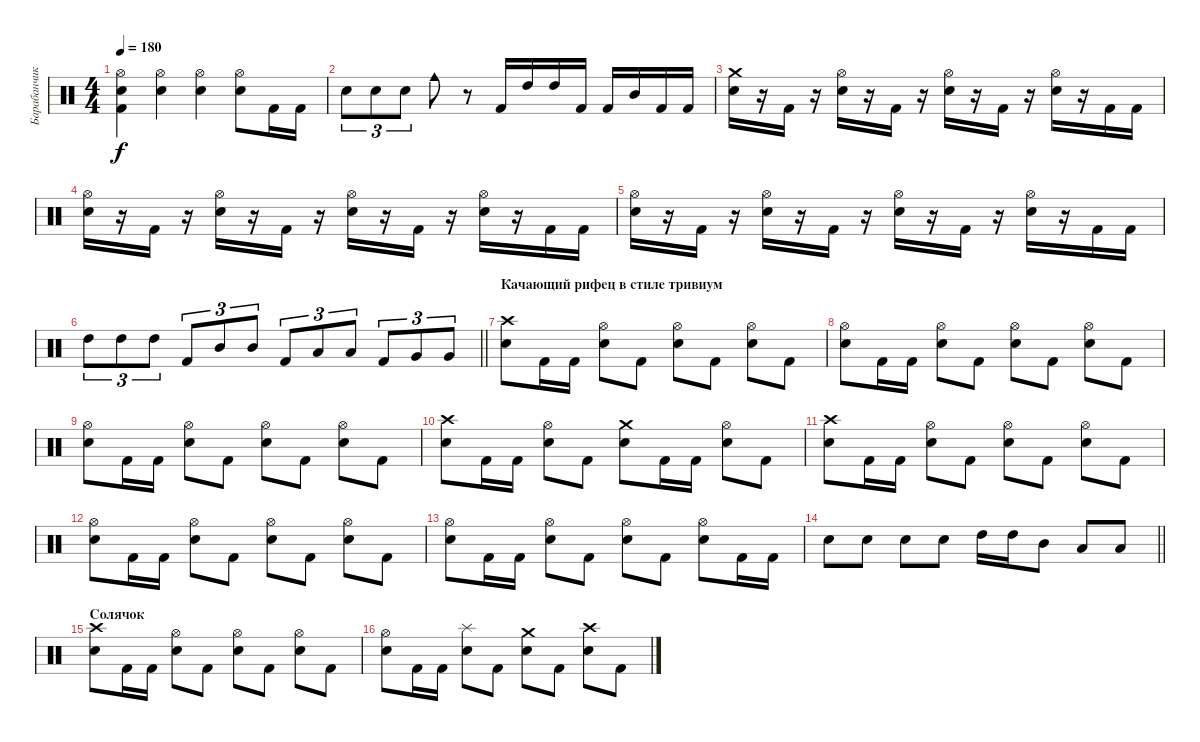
\track ("Барабанчики" "Барабанчик") {instrument percussion}
\staff {score}
\articulation defaults
\ts (4 4)
\tempo 180
\clef neutral
\ks c
("Hi-Hat (open)" "Electric Snare (hit)" "Kick (hit) 2").4{dy f} ("Hi-Hat (open)" "Electric Snare (hit)").4 ("Hi-Hat (open)" "Electric Snare (hit)").4 ("Hi-Hat (open)" "Electric Snare (hit)").8 "Kick (hit) 2".16 "Kick (hit) 2".16 |
"Electric Snare (hit)".8{tu (3 2)} "Electric Snare (hit)".8{tu (3 2)} "Electric Snare (hit)".8{tu (3 2)} "Cowbell medium (hit)".8 r.8 "Kick (hit) 2".16 "High Tom (hit)".16 "High Tom (hit)".16 "Kick (hit) 2".16 "Kick (hit) 2".16 "Mid Tom (hit)".16 "Kick (hit) 2".16 "Kick (hit) 2".16 |
("Electric Snare (hit)" "Crash medium (hit)").16 r.16 "Kick (hit) 2".16 r.16 ("Electric Snare (hit)" "Hi-Hat (open)").16 r.16 "Kick (hit) 2".16 r.16 ("Electric Snare (hit)" "Hi-Hat (open)").16 r.16 "Kick (hit) 2".16 r.16 ("Electric Snare (hit)" "Hi-Hat (open)").16 r.16 "Kick (hit) 2".16 "Kick (hit) 2".16 |
("Electric Snare (hit)" "Hi-Hat (open)").16 r.16 "Kick (hit) 2".16 r.16 ("Electric Snare (hit)" "Hi-Hat (open)").16 r.16 "Kick (hit) 2".16 r.16 ("Electric Snare (hit)" "Hi-Hat (open)").16 r.16 "Kick (hit) 2".16 r.16 ("Electric Snare (hit)" "Hi-Hat (open)").16 r.16 "Kick (hit) 2".16 "Kick (hit) 2".16 |
("Electric Snare (hit)" "Hi-Hat (open)").16 r.16 "Kick (hit) 2".16 r.16 ("Electric Snare (hit)" "Hi-Hat (open)").16 r.16 "Kick (hit) 2".16 r.16 ("Electric Snare (hit)" "Hi-Hat (open)").16 r.16 "Kick (hit) 2".16 r.16 ("Electric Snare (hit)" "Hi-Hat (open)").16 r.16 "Kick (hit) 2".16 "Kick (hit) 2".16 |
\barLineRight lightlight "High Tom (hit)".8{tu (3 2)} "High Tom (hit)".8{tu (3 2)} "High Tom (hit)".8{tu (3 2)} "Kick (hit) 2".8{tu (3 2)} "Mid Tom (hit)".8{tu (3 2)} "Mid Tom (hit)".8{tu (3 2)} "Kick (hit) 2".8{tu (3 2)} "Low Tom (hit)".8{tu (3 2)} "Low Tom (hit)".8{tu (3 2)} "Kick (hit) 2".8{tu (3 2)} "Very Low Tom (hit)".8{tu (3 2)} "Very Low Tom (hit)".8{tu (3 2)}
|
\section ("" "Качающий рифец в стиле тривиум")
("Crash high (hit)" "Electric Snare (hit)").8 "Kick (hit) 2".16 "Kick (hit) 2".16 ("Hi-Hat (open)" "Electric Snare (hit)").8 "Kick (hit) 2".8 ("Hi-Hat (open)" "Electric Snare (hit)").8 "Kick (hit) 2".8 ("Hi-Hat (open)" "Electric Snare (hit)").8 "Kick (hit) 2".8 |
("Hi-Hat (open)" "Electric Snare (hit)").8 "Kick (hit) 2".16 "Kick (hit) 2".16 ("Hi-Hat (open)" "Electric Snare (hit)").8 "Kick (hit) 2".8 ("Hi-Hat (open)" "Electric Snare (hit)").8 "Kick (hit) 2".8 ("Hi-Hat (open)" "Electric Snare (hit)").8 "Kick (hit) 2".8 |
("Hi-Hat (open)" "Electric Snare (hit)").8 "Kick (hit) 2".16 "Kick (hit) 2".16 ("Hi-Hat (open)" "Electric Snare (hit)").8 "Kick (hit) 2".8 ("Hi-Hat (open)" "Electric Snare (hit)").8 "Kick (hit) 2".8 ("Hi-Hat (open)" "Electric Snare (hit)").8 "Kick (hit) 2".8 |
("Crash high (hit)" "Electric Snare (hit)").8 "Kick (hit) 2".16 "Kick (hit) 2".16 ("Hi-Hat (open)" "Electric Snare (hit)").8 "Kick (hit) 2".8 ("Crash medium (hit)" "Electric Snare (hit)").8 "Kick (hit) 2".16 "Kick (hit) 2".16 ("Hi-Hat (open)" "Electric Snare (hit)").8 "Kick (hit) 2".8 |
("Crash high (hit)" "Electric Snare (hit)").8 "Kick (hit) 2".16 "Kick (hit) 2".16 ("Hi-Hat (open)" "Electric Snare (hit)").8 "Kick (hit) 2".8 ("Hi-Hat (open)" "Electric Snare (hit)").8 "Kick (hit) 2".8 ("Hi-Hat (open)" "Electric Snare (hit)").8 "Kick (hit) 2".8 |
("Hi-Hat (open)" "Electric Snare (hit)").8 "Kick (hit) 2".16 "Kick (hit) 2".16 ("Hi-Hat (open)" "Electric Snare (hit)").8 "Kick (hit) 2".8 ("Hi-Hat (open)" "Electric Snare (hit)").8 "Kick (hit) 2".8 ("Hi-Hat (open)" "Electric Snare (hit)").8 "Kick (hit) 2".8 |
("Hi-Hat (open)" "Electric Snare (hit)").8 "Kick (hit) 2".16 "Kick (hit) 2".16 ("Hi-Hat (open)" "Electric Snare (hit)").8 "Kick (hit) 2".8 ("Hi-Hat (open)" "Electric Snare (hit)").8 "Kick (hit) 2".8 ("Hi-Hat (open)" "Electric Snare (hit)").8 "Kick (hit) 2".16 "Kick (hit) 2".16 |
\barLineRight lightlight "Electric Snare (hit)".8 "Electric Snare (hit)".8 "Electric Snare (hit)".8 "Electric Snare (hit)".8 "High Tom (hit)".16 "High Tom (hit)".16 "Mid Tom (hit)".8 "Low Tom (hit)".8 "Low Tom (hit)".8
|
\section ("" "Солячок")
("Crash high (hit)" "Electric Snare (hit)").8 "Kick (hit) 2".16 "Kick (hit) 2".16 ("Hi-Hat (open)" "Electric Snare (hit)").8 "Kick (hit) 2".8 ("Hi-Hat (open)" "Electric Snare (hit)").8 "Kick (hit) 2".8 ("Hi-Hat (open)" "Electric Snare (hit)").8 "Kick (hit) 2".8 |
("Hi-Hat (open)" "Electric Snare (hit)").8 "Kick (hit) 2".16 "Kick (hit) 2".16 ("Splash (hit)" "Electric Snare (hit)").8 "Kick (hit) 2".8 ("Crash medium (hit)" "Electric Snare (hit)").8 "Kick (hit) 2".8 ("Crash high (hit)" "Electric Snare (hit)").8 "Kick (hit) 2".8
